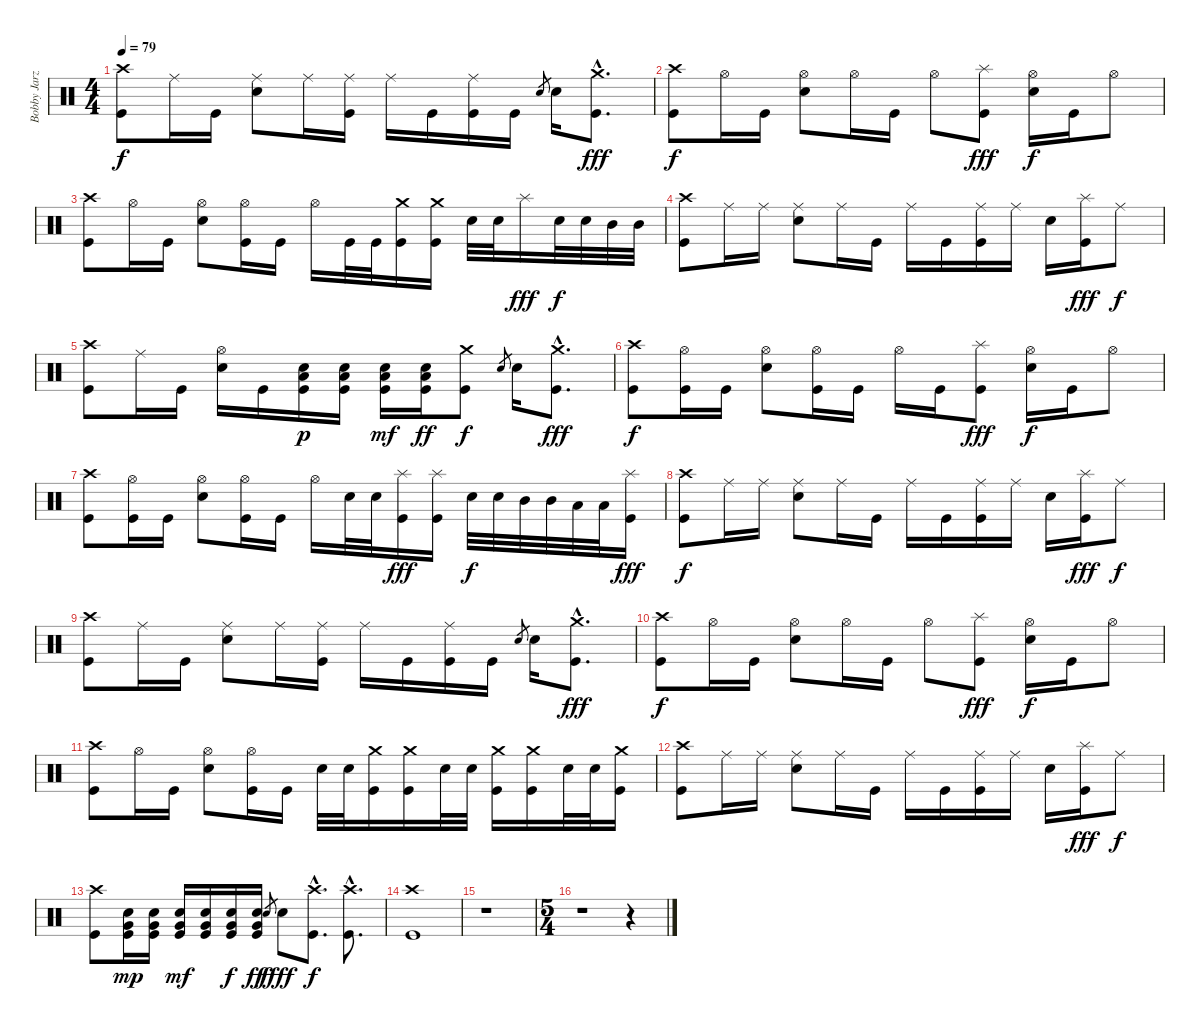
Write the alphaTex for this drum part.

\track ("Bobby Jarzombek" "Bobby Jarz") {instrument percussion}
\staff {score}
\articulation defaults
\ts (4 4)
\tempo 79
\clef neutral
\ks c
("Crash high (hit)" "Kick (hit)").8{dy f} "Ride (middle)".16 "Kick (hit)".16 ("Ride (middle)" "Electric Snare (hit)").8 "Ride (middle)".16 ("Ride (middle)" "Kick (hit)").16 "Ride (middle)".16 "Kick (hit)".16 ("Ride (middle)" "Kick (hit)").16 "Kick (hit)".16 "Electric Snare (hit)".8{gr} "Electric Snare (hit)".16 ("Crash medium (hit)"{hac} "Kick (hit)"{hac}).8{d dy fff} |
("Crash high (hit)" "Kick (hit)").8{dy f} "Hi-Hat (open)".16 "Kick (hit)".16 ("Hi-Hat (open)" "Electric Snare (hit)").8 "Hi-Hat (open)".16 "Kick (hit)".16 "Hi-Hat (open)".8 ("Splash (hit)" "Kick (hit)").8{dy fff} ("Hi-Hat (open)" "Electric Snare (hit)").16{dy f} "Kick (hit)".16 "Hi-Hat (open)".8 |
("Crash high (hit)" "Kick (hit)").8 "Hi-Hat (open)".16 "Kick (hit)".16 ("Hi-Hat (open)" "Electric Snare (hit)").8 ("Hi-Hat (open)" "Kick (hit)").16 "Kick (hit)".16 "Hi-Hat (open)".16 "Kick (hit)".32 "Kick (hit)".32 ("Crash medium (hit)" "Kick (hit)").16 ("Crash medium (hit)" "Kick (hit)").16 "Electric Snare (hit)".32 "Electric Snare (hit)".32 "Splash (hit)".16{dy fff} "Electric Snare (hit)".32{dy f} "Electric Snare (hit)".32 "Mid Tom (hit)".32 "Mid Tom (hit)".32 |
("Crash high (hit)" "Kick (hit)").8 "Ride (middle)".16 "Ride (middle)".16 ("Ride (middle)" "Electric Snare (hit)").8 "Ride (middle)".16 "Kick (hit)".16 "Ride (middle)".16 "Kick (hit)".16 ("Ride (middle)" "Kick (hit)").16 "Ride (middle)".16 "Electric Snare (hit)".16 ("Splash (hit)" "Kick (hit)").16{dy fff} "Ride (middle)".8{dy f} |
("Crash high (hit)" "Kick (hit)").8 "Ride (middle)".16 "Kick (hit)".16 ("Hi-Hat (open)" "Electric Snare (hit)").16 "Kick (hit)".16 ("Low Tom (hit)" "Electric Snare (hit)" "Kick (hit)").16{dy p} ("Low Tom (hit)" "Electric Snare (hit)" "Kick (hit)").16 ("Low Tom (hit)" "Electric Snare (hit)" "Kick (hit)").16{dy mf} ("Low Tom (hit)" "Electric Snare (hit)" "Kick (hit)").16{dy ff} ("Crash medium (hit)" "Kick (hit)").8{dy f} "Electric Snare (hit)".8{gr} "Electric Snare (hit)".16 ("Crash medium (hit)"{hac} "Kick (hit)"{hac}).8{d dy fff} |
("Crash high (hit)" "Kick (hit)").8{dy f} ("Hi-Hat (open)" "Kick (hit)").16 "Kick (hit)".16 ("Hi-Hat (open)" "Electric Snare (hit)").8 ("Hi-Hat (open)" "Kick (hit)").16 "Kick (hit)".16 "Hi-Hat (open)".16 "Kick (hit)".16 ("Splash (hit)" "Kick (hit)").8{dy fff} ("Hi-Hat (open)" "Electric Snare (hit)").16{dy f} "Kick (hit)".16 "Hi-Hat (open)".8 |
("Crash high (hit)" "Kick (hit)").8 ("Hi-Hat (open)" "Kick (hit)").16 "Kick (hit)".16 ("Hi-Hat (open)" "Electric Snare (hit)").8 ("Hi-Hat (open)" "Kick (hit)").16 "Kick (hit)".16 "Hi-Hat (open)".16 "Electric Snare (hit)".32 "Electric Snare (hit)".32 ("Splash (hit)" "Kick (hit)").16{dy fff} ("Splash (hit)" "Kick (hit)").16 "Electric Snare (hit)".32{dy f} "Electric Snare (hit)".32 "Mid Tom (hit)".32 "Mid Tom (hit)".32 "Low Tom (hit)".32 "Low Tom (hit)".32 ("Splash (hit)" "Kick (hit)").16{dy fff} |
("Crash high (hit)" "Kick (hit)").8{dy f} "Ride (middle)".16 "Ride (middle)".16 ("Ride (middle)" "Electric Snare (hit)").8 "Ride (middle)".16 "Kick (hit)".16 "Ride (middle)".16 "Kick (hit)".16 ("Ride (middle)" "Kick (hit)").16 "Ride (middle)".16 "Electric Snare (hit)".16 ("Splash (hit)" "Kick (hit)").16{dy fff} "Ride (middle)".8{dy f} |
("Crash high (hit)" "Kick (hit)").8 "Ride (middle)".16 "Kick (hit)".16 ("Ride (middle)" "Electric Snare (hit)").8 "Ride (middle)".16 ("Ride (middle)" "Kick (hit)").16 "Ride (middle)".16 "Kick (hit)".16 ("Ride (middle)" "Kick (hit)").16 "Kick (hit)".16 "Electric Snare (hit)".8{gr} "Electric Snare (hit)".16 ("Crash medium (hit)"{hac} "Kick (hit)"{hac}).8{d dy fff} |
("Crash high (hit)" "Kick (hit)").8{dy f} "Hi-Hat (open)".16 "Kick (hit)".16 ("Hi-Hat (open)" "Electric Snare (hit)").8 "Hi-Hat (open)".16 "Kick (hit)".16 "Hi-Hat (open)".8 ("Splash (hit)" "Kick (hit)").8{dy fff} ("Hi-Hat (open)" "Electric Snare (hit)").16{dy f} "Kick (hit)".16 "Hi-Hat (open)".8 |
("Crash high (hit)" "Kick (hit)").8 "Hi-Hat (open)".16 "Kick (hit)".16 ("Hi-Hat (open)" "Electric Snare (hit)").8 ("Hi-Hat (open)" "Kick (hit)").16 "Kick (hit)".16 "Electric Snare (hit)".32 "Electric Snare (hit)".32 ("Crash medium (hit)" "Kick (hit)").16 ("Crash medium (hit)" "Kick (hit)").16 "Electric Snare (hit)".32 "Electric Snare (hit)".32 ("Crash medium (hit)" "Kick (hit)").16 ("Crash medium (hit)" "Kick (hit)").16 "Electric Snare (hit)".32 "Electric Snare (hit)".32 ("Crash medium (hit)" "Kick (hit)").16 |
("Crash high (hit)" "Kick (hit)").8 "Ride (middle)".16 "Ride (middle)".16 ("Ride (middle)" "Electric Snare (hit)").8 "Ride (middle)".16 "Kick (hit)".16 "Ride (middle)".16 "Kick (hit)".16 ("Ride (middle)" "Kick (hit)").16 "Ride (middle)".16 "Electric Snare (hit)".16 ("Splash (hit)" "Kick (hit)").16{dy fff} "Ride (middle)".8{dy f} |
("Crash high (hit)" "Kick (hit)").8 ("Electric Snare (hit)" "Very Low Tom (hit)" "Kick (hit)").16{dy mp} ("Electric Snare (hit)" "Very Low Tom (hit)" "Kick (hit)").16 ("Electric Snare (hit)" "Very Low Tom (hit)" "Kick (hit)").16{dy mf} ("Electric Snare (hit)" "Very Low Tom (hit)" "Kick (hit)").16 ("Electric Snare (hit)" "Very Low Tom (hit)" "Kick (hit)").16{dy f} ("Electric Snare (hit)" "Very Low Tom (hit)" "Kick (hit)").16{dy ff} "Electric Snare (hit)".8{gr dy f} "Electric Snare (hit)".8{dy fff} ("Crash high (hit)"{hac} "Kick (hit)"{hac}).8{d dy f} ("Crash high (hit)"{hac} "Kick (hit)"{hac}).8{d} |
("Crash high (hit)" "Kick (hit)").1 |
r.1 |
\ts (5 4)
r.1 r.4
